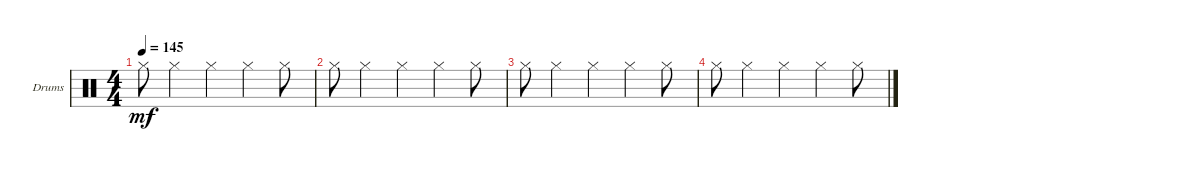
\defaultSystemsLayout 4
\bracketExtendMode groupsimilarinstruments
\firstSystemTrackNameOrientation horizontal
\otherSystemsTrackNameOrientation horizontal
\track ("Drumkit" "Drums") {instrument percussion}
\staff {score}
\articulation defaults
\ts (4 4)
\tempo 145
\clef neutral
\ks c "Hi-Hat (closed)".8{dy mf} "Hi-Hat (closed)".4 "Hi-Hat (closed)".4 "Hi-Hat (closed)".4 "Hi-Hat (closed)".8
|
"Hi-Hat (closed)".8 "Hi-Hat (closed)".4 "Hi-Hat (closed)".4 "Hi-Hat (closed)".4 "Hi-Hat (closed)".8 |
"Hi-Hat (closed)".8 "Hi-Hat (closed)".4 "Hi-Hat (closed)".4 "Hi-Hat (closed)".4 "Hi-Hat (closed)".8 |
"Hi-Hat (closed)".8 "Hi-Hat (closed)".4 "Hi-Hat (closed)".4 "Hi-Hat (closed)".4 "Hi-Hat (closed)".8
